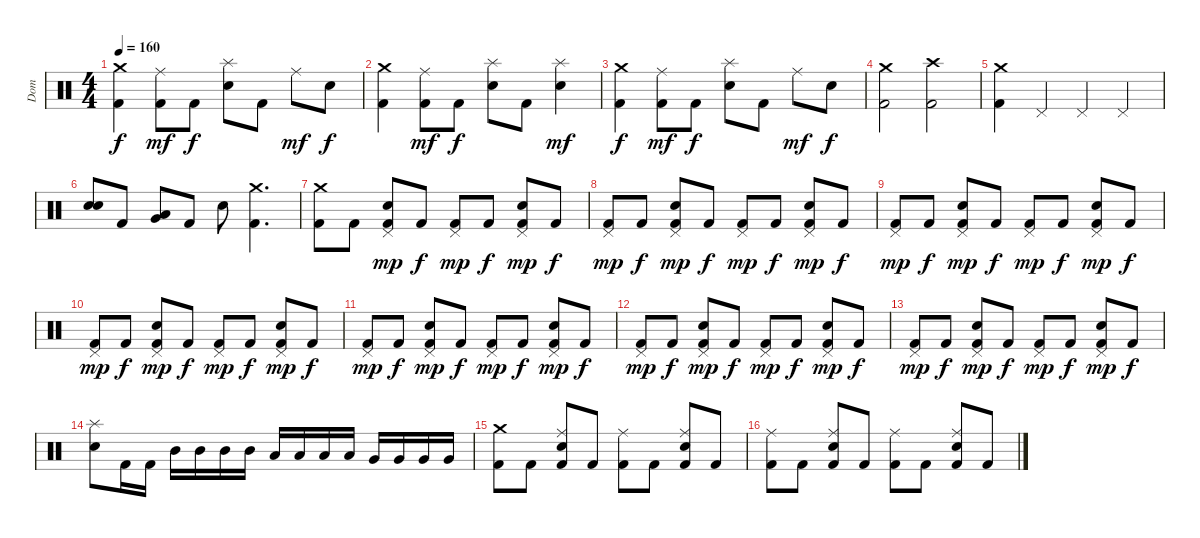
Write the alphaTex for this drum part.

\track ("Dom" "Dom") {instrument percussion}
\staff {score}
\articulation defaults
\ts (4 4)
\tempo 160
\clef neutral
\ks c
("Crash medium (hit)" "Kick (hit) 2").4{dy f} ("Ride (middle)" "Kick (hit) 2").8{dy mf} "Kick (hit) 2".8{dy f} ("Splash (hit)" "Snare (hit) 2").8 "Kick (hit) 2".8 "Ride (middle)".8{dy mf} "Snare (hit) 2".8{dy f} |
("Crash medium (hit)" "Kick (hit) 2").4 ("Ride (middle)" "Kick (hit) 2").8{dy mf} "Kick (hit) 2".8{dy f} ("Splash (hit)" "Snare (hit) 2").8 "Kick (hit) 2".8 ("Splash (hit)" "Snare (hit) 2").4{dy mf} |
("Crash medium (hit)" "Kick (hit) 2").4{dy f} ("Ride (middle)" "Kick (hit) 2").8{dy mf} "Kick (hit) 2".8{dy f} ("Splash (hit)" "Snare (hit) 2").8 "Kick (hit) 2".8 "Ride (middle)".8{dy mf} "Snare (hit) 2".8{dy f} |
("Crash medium (hit)" "Kick (hit) 2").2 ("Crash high (hit)" "Kick (hit) 2").2 |
("Crash medium (hit)" "Kick (hit) 2").4 "Pedal Hi-Hat (hit)".4 "Pedal Hi-Hat (hit)".4 "Pedal Hi-Hat (hit)".4 |
("Snare (hit) 2" "Snare (hit) 2").8 "Kick (hit) 2".8 ("Very Low Tom (hit)" "Low Tom (hit)").8 "Kick (hit) 2".8 "Snare (hit) 2".8 ("Crash medium (hit)" "Kick (hit) 2").4{d} |
("Crash medium (hit)" "Kick (hit) 2").8 "Kick (hit) 2".8 ("Pedal Hi-Hat (hit)" "Snare (hit) 2" "Kick (hit) 2").8{dy mp} "Kick (hit) 2".8{dy f} ("Pedal Hi-Hat (hit)" "Kick (hit) 2").8{dy mp} "Kick (hit) 2".8{dy f} ("Pedal Hi-Hat (hit)" "Snare (hit) 2" "Kick (hit) 2").8{dy mp} "Kick (hit) 2".8{dy f} |
("Pedal Hi-Hat (hit)" "Kick (hit) 2").8{dy mp} "Kick (hit) 2".8{dy f} ("Pedal Hi-Hat (hit)" "Snare (hit) 2" "Kick (hit) 2").8{dy mp} "Kick (hit) 2".8{dy f} ("Pedal Hi-Hat (hit)" "Kick (hit) 2").8{dy mp} "Kick (hit) 2".8{dy f} ("Pedal Hi-Hat (hit)" "Snare (hit) 2" "Kick (hit) 2").8{dy mp} "Kick (hit) 2".8{dy f} |
("Pedal Hi-Hat (hit)" "Kick (hit) 2").8{dy mp} "Kick (hit) 2".8{dy f} ("Pedal Hi-Hat (hit)" "Snare (hit) 2" "Kick (hit) 2").8{dy mp} "Kick (hit) 2".8{dy f} ("Pedal Hi-Hat (hit)" "Kick (hit) 2").8{dy mp} "Kick (hit) 2".8{dy f} ("Pedal Hi-Hat (hit)" "Snare (hit) 2" "Kick (hit) 2").8{dy mp} "Kick (hit) 2".8{dy f} |
("Pedal Hi-Hat (hit)" "Kick (hit) 2").8{dy mp} "Kick (hit) 2".8{dy f} ("Pedal Hi-Hat (hit)" "Snare (hit) 2" "Kick (hit) 2").8{dy mp} "Kick (hit) 2".8{dy f} ("Pedal Hi-Hat (hit)" "Kick (hit) 2").8{dy mp} "Kick (hit) 2".8{dy f} ("Pedal Hi-Hat (hit)" "Snare (hit) 2" "Kick (hit) 2").8{dy mp} "Kick (hit) 2".8{dy f} |
("Pedal Hi-Hat (hit)" "Kick (hit) 2").8{dy mp} "Kick (hit) 2".8{dy f} ("Pedal Hi-Hat (hit)" "Snare (hit) 2" "Kick (hit) 2").8{dy mp} "Kick (hit) 2".8{dy f} ("Pedal Hi-Hat (hit)" "Kick (hit) 2").8{dy mp} "Kick (hit) 2".8{dy f} ("Pedal Hi-Hat (hit)" "Snare (hit) 2" "Kick (hit) 2").8{dy mp} "Kick (hit) 2".8{dy f} |
("Pedal Hi-Hat (hit)" "Kick (hit) 2").8{dy mp} "Kick (hit) 2".8{dy f} ("Pedal Hi-Hat (hit)" "Snare (hit) 2" "Kick (hit) 2").8{dy mp} "Kick (hit) 2".8{dy f} ("Pedal Hi-Hat (hit)" "Kick (hit) 2").8{dy mp} "Kick (hit) 2".8{dy f} ("Pedal Hi-Hat (hit)" "Snare (hit) 2" "Kick (hit) 2").8{dy mp} "Kick (hit) 2".8{dy f} |
("Pedal Hi-Hat (hit)" "Kick (hit) 2").8{dy mp} "Kick (hit) 2".8{dy f} ("Pedal Hi-Hat (hit)" "Snare (hit) 2" "Kick (hit) 2").8{dy mp} "Kick (hit) 2".8{dy f} ("Pedal Hi-Hat (hit)" "Kick (hit) 2").8{dy mp} "Kick (hit) 2".8{dy f} ("Pedal Hi-Hat (hit)" "Snare (hit) 2" "Kick (hit) 2").8{dy mp} "Kick (hit) 2".8{dy f} |
("Splash (hit)" "Snare (hit) 2").8 "Kick (hit) 2".16 "Kick (hit) 2".16 "Mid Tom (hit)".16 "Mid Tom (hit)".16 "Mid Tom (hit)".16 "Mid Tom (hit)".16 "Low Tom (hit)".16 "Low Tom (hit)".16 "Low Tom (hit)".16 "Low Tom (hit)".16 "Very Low Tom (hit)".16 "Very Low Tom (hit)".16 "Very Low Tom (hit)".16 "Very Low Tom (hit)".16 |
("Crash medium (hit)" "Kick (hit) 2").8 "Kick (hit) 2".8 ("Ride (middle)" "Snare (hit) 2" "Kick (hit) 2").8 "Kick (hit) 2".8 ("Ride (middle)" "Kick (hit) 2").8 "Kick (hit) 2".8 ("Ride (middle)" "Snare (hit) 2" "Kick (hit) 2").8 "Kick (hit) 2".8 |
("Ride (middle)" "Kick (hit) 2").8 "Kick (hit) 2".8 ("Ride (middle)" "Snare (hit) 2" "Kick (hit) 2").8 "Kick (hit) 2".8 ("Ride (middle)" "Kick (hit) 2").8 "Kick (hit) 2".8 ("Ride (middle)" "Snare (hit) 2" "Kick (hit) 2").8 "Kick (hit) 2".8
